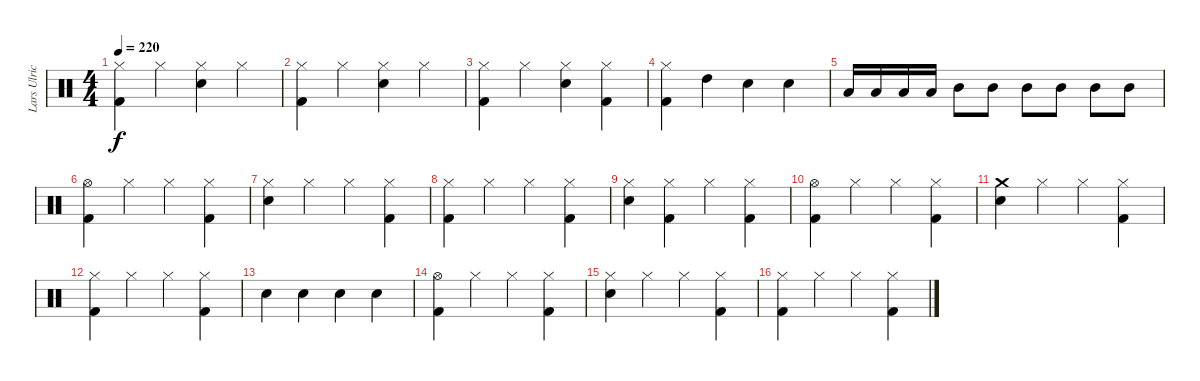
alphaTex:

\track ("Lars Ulrich (Drums)" "Lars Ulric") {instrument percussion}
\staff {score}
\articulation defaults
\ts (4 4)
\tempo 220
\clef neutral
\ks c
("Hi-Hat (closed)" "Kick (hit) 2").4{dy f} "Hi-Hat (closed)".4 ("Hi-Hat (closed)" "Snare (hit) 2").4 "Hi-Hat (closed)".4 |
("Hi-Hat (closed)" "Kick (hit) 2").4 "Hi-Hat (closed)".4 ("Hi-Hat (closed)" "Snare (hit) 2").4 "Hi-Hat (closed)".4 |
("Hi-Hat (closed)" "Kick (hit) 2").4 "Hi-Hat (closed)".4 ("Hi-Hat (closed)" "Snare (hit) 2").4 ("Hi-Hat (closed)" "Kick (hit) 2").4 |
("Hi-Hat (closed)" "Kick (hit) 2").4 "High Tom (hit)".4 "Snare (hit) 2".4 "Snare (hit) 2".4 |
"Low Tom (hit)".16 "Low Tom (hit)".16 "Low Tom (hit)".16 "Low Tom (hit)".16 "Mid Tom (hit)".8 "Mid Tom (hit)".8 "Mid Tom (hit)".8 "Mid Tom (hit)".8 "Mid Tom (hit)".8 "Mid Tom (hit)".8 |
("Hi-Hat (open)" "Kick (hit) 2").4 "Hi-Hat (closed)".4 "Hi-Hat (closed)".4 ("Hi-Hat (closed)" "Kick (hit) 2").4 |
("Hi-Hat (closed)" "Snare (hit) 2").4 "Hi-Hat (closed)".4 "Hi-Hat (closed)".4 ("Hi-Hat (closed)" "Kick (hit) 2").4 |
("Hi-Hat (closed)" "Kick (hit) 2").4 "Hi-Hat (closed)".4 "Hi-Hat (closed)".4 ("Hi-Hat (closed)" "Kick (hit) 2").4 |
("Hi-Hat (closed)" "Snare (hit) 2").4 ("Hi-Hat (closed)" "Kick (hit) 2").4 "Hi-Hat (closed)".4 ("Hi-Hat (closed)" "Kick (hit) 2").4 |
("Hi-Hat (open)" "Kick (hit) 2").4 "Hi-Hat (closed)".4 "Hi-Hat (closed)".4 ("Hi-Hat (closed)" "Kick (hit) 2").4 |
("Crash medium (hit)" "Snare (hit) 2").4 "Hi-Hat (closed)".4 "Hi-Hat (closed)".4 ("Hi-Hat (closed)" "Kick (hit) 2").4 |
("Hi-Hat (closed)" "Kick (hit) 2").4 "Hi-Hat (closed)".4 "Hi-Hat (closed)".4 ("Hi-Hat (closed)" "Kick (hit) 2").4 |
"Snare (hit) 2".4 "Snare (hit) 2".4 "Snare (hit) 2".4 "Snare (hit) 2".4 |
("Hi-Hat (open)" "Kick (hit) 2").4 "Hi-Hat (closed)".4 "Hi-Hat (closed)".4 ("Hi-Hat (closed)" "Kick (hit) 2").4 |
("Hi-Hat (closed)" "Snare (hit) 2").4 "Hi-Hat (closed)".4 "Hi-Hat (closed)".4 ("Hi-Hat (closed)" "Kick (hit) 2").4 |
("Hi-Hat (closed)" "Kick (hit) 2").4 "Hi-Hat (closed)".4 "Hi-Hat (closed)".4 ("Hi-Hat (closed)" "Kick (hit) 2").4
